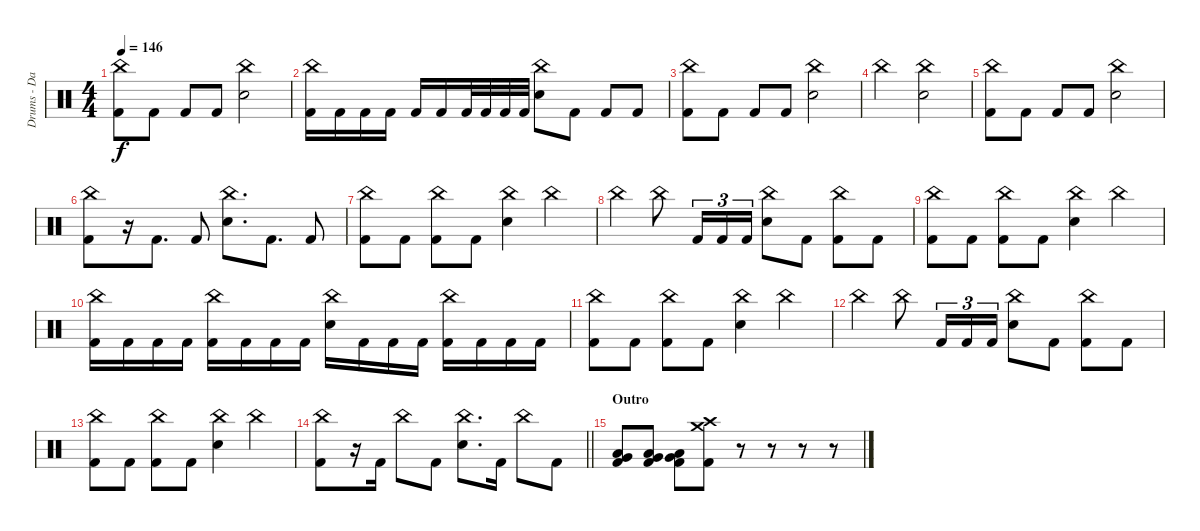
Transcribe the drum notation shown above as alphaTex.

\track ("Drums - DaDa" "Drums - Da") {instrument percussion}
\staff {score}
\articulation defaults
\ts (4 4)
\tempo 146
\clef neutral
\ks c
("China (hit)" "Kick (hit) 2").8{dy f} "Kick (hit) 2".8 "Kick (hit) 2".8 "Kick (hit) 2".8 ("China (hit)" "Electric Snare (hit)").2 |
("China (hit)" "Kick (hit) 2").16 "Kick (hit) 2".16 "Kick (hit) 2".16 "Kick (hit) 2".16 "Kick (hit) 2".16 "Kick (hit) 2".16 "Kick (hit) 2".32 "Kick (hit) 2".32 "Kick (hit) 2".32 "Kick (hit) 2".32 ("China (hit)" "Electric Snare (hit)").8 "Kick (hit) 2".8 "Kick (hit) 2".8 "Kick (hit) 2".8 |
("China (hit)" "Kick (hit) 2").8 "Kick (hit) 2".8 "Kick (hit) 2".8 "Kick (hit) 2".8 ("China (hit)" "Electric Snare (hit)").2 |
"China (hit)".2 ("China (hit)" "Electric Snare (hit)").2 |
("China (hit)" "Kick (hit) 2").8 "Kick (hit) 2".8 "Kick (hit) 2".8 "Kick (hit) 2".8 ("China (hit)" "Electric Snare (hit)").2 |
("China (hit)" "Kick (hit) 2").8 r.16 "Kick (hit) 2".8{d} "Kick (hit) 2".8 ("China (hit)" "Electric Snare (hit)").8{d} "Kick (hit) 2".8{d} "Kick (hit) 2".8 |
("China (hit)" "Kick (hit) 2").8 "Kick (hit) 2".8 ("China (hit)" "Kick (hit) 2").8 "Kick (hit) 2".8 ("China (hit)" "Electric Snare (hit)").4 "China (hit)".4 |
"China (hit)".4 "China (hit)".8 "Kick (hit) 2".16{tu (3 2)} "Kick (hit) 2".16{tu (3 2)} "Kick (hit) 2".16{tu (3 2)} ("China (hit)" "Electric Snare (hit)").8 "Kick (hit) 2".8 ("China (hit)" "Kick (hit) 2").8 "Kick (hit) 2".8 |
("China (hit)" "Kick (hit) 2").8 "Kick (hit) 2".8 ("China (hit)" "Kick (hit) 2").8 "Kick (hit) 2".8 ("China (hit)" "Electric Snare (hit)").4 "China (hit)".4 |
("China (hit)" "Kick (hit) 2").16 "Kick (hit) 2".16 "Kick (hit) 2".16 "Kick (hit) 2".16 ("China (hit)" "Kick (hit) 2").16 "Kick (hit) 2".16 "Kick (hit) 2".16 "Kick (hit) 2".16 ("China (hit)" "Electric Snare (hit)").16 "Kick (hit) 2".16 "Kick (hit) 2".16 "Kick (hit) 2".16 ("China (hit)" "Kick (hit) 2").16 "Kick (hit) 2".16 "Kick (hit) 2".16 "Kick (hit) 2".16 |
("China (hit)" "Kick (hit) 2").8 "Kick (hit) 2".8 ("China (hit)" "Kick (hit) 2").8 "Kick (hit) 2".8 ("China (hit)" "Electric Snare (hit)").4 "China (hit)".4 |
"China (hit)".4 "China (hit)".8 "Kick (hit) 2".16{tu (3 2)} "Kick (hit) 2".16{tu (3 2)} "Kick (hit) 2".16{tu (3 2)} ("China (hit)" "Electric Snare (hit)").8 "Kick (hit) 2".8 ("China (hit)" "Kick (hit) 2").8 "Kick (hit) 2".8 |
("China (hit)" "Kick (hit) 2").8 "Kick (hit) 2".8 ("China (hit)" "Kick (hit) 2").8 "Kick (hit) 2".8 ("China (hit)" "Electric Snare (hit)").4 "China (hit)".4 |
\barLineRight lightlight
("China (hit)" "Kick (hit) 2").8 r.16 "Kick (hit) 2".16 "China (hit)".8 "Kick (hit) 2".8 ("China (hit)" "Electric Snare (hit)").8{d} "Kick (hit) 2".16 "China (hit)".8 "Kick (hit) 2".8 |
\section ("" "Outro")
("Very Low Tom (hit)" "Low Tom (hit)" "Kick (hit) 2").8 ("Very Low Tom (hit)" "Low Tom (hit)" "Kick (hit) 2").8 ("Very Low Tom (hit)" "Low Tom (hit)" "Kick (hit) 2").8 ("Crash high (hit)" "Crash medium (hit)" "Kick (hit) 2").8 r.8 r.8 r.8 r.8
